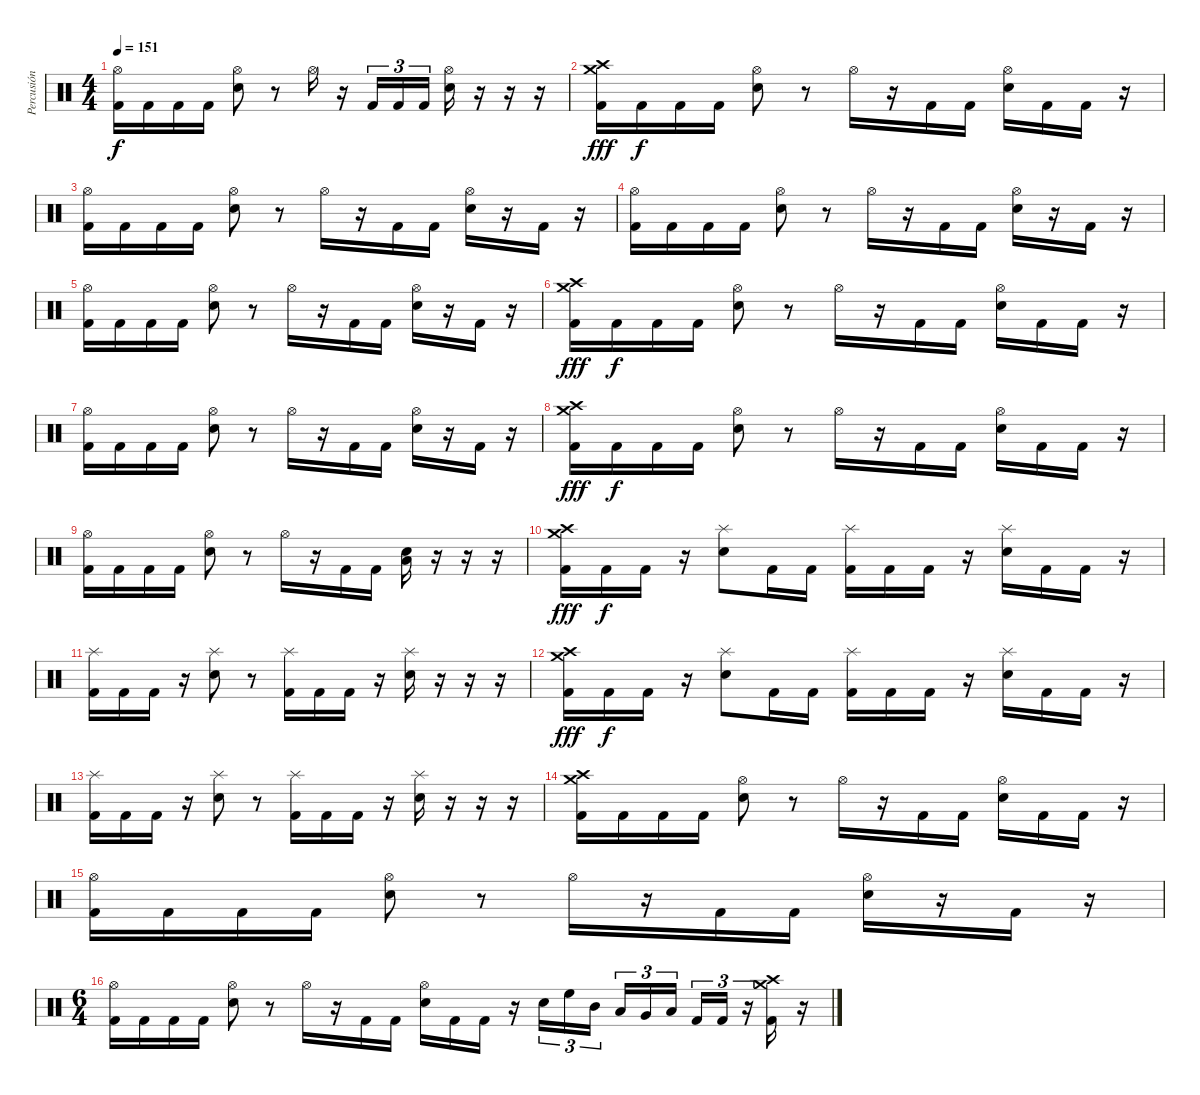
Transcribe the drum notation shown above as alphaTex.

\track ("Percusión" "Percusión") {instrument percussion}
\staff {score}
\articulation defaults
\ts (4 4)
\tempo 151
\clef neutral
\ks c
("Hi-Hat (open)" "Kick (hit) 2").16{dy f} "Kick (hit) 2".16 "Kick (hit) 2".16 "Kick (hit) 2".16 ("Hi-Hat (open)" "Electric Snare (hit)").8 r.8 "Hi-Hat (open)".16 r.16 "Kick (hit) 2".16{tu (3 2)} "Kick (hit) 2".16{tu (3 2)} "Kick (hit) 2".16{tu (3 2)} ("Hi-Hat (open)" "Electric Snare (hit)").16 r.16 r.16 r.16 |
("Crash high (hit)" "Crash medium (hit)" "Kick (hit) 2").16{dy fff} "Kick (hit) 2".16{dy f} "Kick (hit) 2".16 "Kick (hit) 2".16 ("Hi-Hat (open)" "Electric Snare (hit)").8 r.8 "Hi-Hat (open)".16 r.16 "Kick (hit) 2".16 "Kick (hit) 2".16 ("Hi-Hat (open)" "Electric Snare (hit)").16 "Kick (hit) 2".16 "Kick (hit) 2".16 r.16 |
("Hi-Hat (open)" "Kick (hit) 2").16 "Kick (hit) 2".16 "Kick (hit) 2".16 "Kick (hit) 2".16 ("Hi-Hat (open)" "Electric Snare (hit)").8 r.8 "Hi-Hat (open)".16 r.16 "Kick (hit) 2".16 "Kick (hit) 2".16 ("Hi-Hat (open)" "Electric Snare (hit)").16 r.16 "Kick (hit) 2".16 r.16 |
("Hi-Hat (open)" "Kick (hit) 2").16 "Kick (hit) 2".16 "Kick (hit) 2".16 "Kick (hit) 2".16 ("Hi-Hat (open)" "Electric Snare (hit)").8 r.8 "Hi-Hat (open)".16 r.16 "Kick (hit) 2".16 "Kick (hit) 2".16 ("Hi-Hat (open)" "Electric Snare (hit)").16 r.16 "Kick (hit) 2".16 r.16 |
("Hi-Hat (open)" "Kick (hit) 2").16 "Kick (hit) 2".16 "Kick (hit) 2".16 "Kick (hit) 2".16 ("Hi-Hat (open)" "Electric Snare (hit)").8 r.8 "Hi-Hat (open)".16 r.16 "Kick (hit) 2".16 "Kick (hit) 2".16 ("Hi-Hat (open)" "Electric Snare (hit)").16 r.16 "Kick (hit) 2".16 r.16 |
("Crash high (hit)" "Crash medium (hit)" "Kick (hit) 2").16{dy fff} "Kick (hit) 2".16{dy f} "Kick (hit) 2".16 "Kick (hit) 2".16 ("Hi-Hat (open)" "Electric Snare (hit)").8 r.8 "Hi-Hat (open)".16 r.16 "Kick (hit) 2".16 "Kick (hit) 2".16 ("Hi-Hat (open)" "Electric Snare (hit)").16 "Kick (hit) 2".16 "Kick (hit) 2".16 r.16 |
("Hi-Hat (open)" "Kick (hit) 2").16 "Kick (hit) 2".16 "Kick (hit) 2".16 "Kick (hit) 2".16 ("Hi-Hat (open)" "Electric Snare (hit)").8 r.8 "Hi-Hat (open)".16 r.16 "Kick (hit) 2".16 "Kick (hit) 2".16 ("Hi-Hat (open)" "Electric Snare (hit)").16 r.16 "Kick (hit) 2".16 r.16 |
("Crash high (hit)" "Crash medium (hit)" "Kick (hit) 2").16{dy fff} "Kick (hit) 2".16{dy f} "Kick (hit) 2".16 "Kick (hit) 2".16 ("Hi-Hat (open)" "Electric Snare (hit)").8 r.8 "Hi-Hat (open)".16 r.16 "Kick (hit) 2".16 "Kick (hit) 2".16 ("Hi-Hat (open)" "Electric Snare (hit)").16 "Kick (hit) 2".16 "Kick (hit) 2".16 r.16 |
("Hi-Hat (open)" "Kick (hit) 2").16 "Kick (hit) 2".16 "Kick (hit) 2".16 "Kick (hit) 2".16 ("Hi-Hat (open)" "Electric Snare (hit)").8 r.8 "Hi-Hat (open)".16 r.16 "Kick (hit) 2".16 "Kick (hit) 2".16 ("Electric Snare (hit)" "Low Tom (hit)").16 r.16 r.16 r.16 |
("Crash high (hit)" "Crash medium (hit)" "Kick (hit) 2").16{dy fff} "Kick (hit) 2".16{dy f} "Kick (hit) 2".16 r.16 ("Splash (hit)" "Electric Snare (hit)").8 "Kick (hit) 2".16 "Kick (hit) 2".16 ("Splash (hit)" "Kick (hit) 2").16 "Kick (hit) 2".16 "Kick (hit) 2".16 r.16 ("Splash (hit)" "Electric Snare (hit)").16 "Kick (hit) 2".16 "Kick (hit) 2".16 r.16 |
("Splash (hit)" "Kick (hit) 2").16 "Kick (hit) 2".16 "Kick (hit) 2".16 r.16 ("Splash (hit)" "Electric Snare (hit)").8 r.8 ("Splash (hit)" "Kick (hit) 2").16 "Kick (hit) 2".16 "Kick (hit) 2".16 r.16 ("Splash (hit)" "Electric Snare (hit)").16 r.16 r.16 r.16 |
("Crash high (hit)" "Crash medium (hit)" "Kick (hit) 2").16{dy fff} "Kick (hit) 2".16{dy f} "Kick (hit) 2".16 r.16 ("Splash (hit)" "Electric Snare (hit)").8 "Kick (hit) 2".16 "Kick (hit) 2".16 ("Splash (hit)" "Kick (hit) 2").16 "Kick (hit) 2".16 "Kick (hit) 2".16 r.16 ("Splash (hit)" "Electric Snare (hit)").16 "Kick (hit) 2".16 "Kick (hit) 2".16 r.16 |
("Splash (hit)" "Kick (hit) 2").16 "Kick (hit) 2".16 "Kick (hit) 2".16 r.16 ("Splash (hit)" "Electric Snare (hit)").8 r.8 ("Splash (hit)" "Kick (hit) 2").16 "Kick (hit) 2".16 "Kick (hit) 2".16 r.16 ("Splash (hit)" "Electric Snare (hit)").16 r.16 r.16 r.16 |
("Crash high (hit)" "Crash medium (hit)" "Kick (hit) 2").16 "Kick (hit) 2".16 "Kick (hit) 2".16 "Kick (hit) 2".16 ("Hi-Hat (open)" "Electric Snare (hit)").8 r.8 "Hi-Hat (open)".16 r.16 "Kick (hit) 2".16 "Kick (hit) 2".16 ("Hi-Hat (open)" "Electric Snare (hit)").16 "Kick (hit) 2".16 "Kick (hit) 2".16 r.16 |
("Hi-Hat (open)" "Kick (hit) 2").16 "Kick (hit) 2".16 "Kick (hit) 2".16 "Kick (hit) 2".16 ("Hi-Hat (open)" "Electric Snare (hit)").8 r.8 "Hi-Hat (open)".16 r.16 "Kick (hit) 2".16 "Kick (hit) 2".16 ("Hi-Hat (open)" "Electric Snare (hit)").16 r.16 "Kick (hit) 2".16 r.16 |
\ts (6 4)
("Hi-Hat (open)" "Kick (hit) 2").16 "Kick (hit) 2".16 "Kick (hit) 2".16 "Kick (hit) 2".16 ("Hi-Hat (open)" "Electric Snare (hit)").8 r.8 "Hi-Hat (open)".16 r.16 "Kick (hit) 2".16 "Kick (hit) 2".16 ("Hi-Hat (open)" "Electric Snare (hit)").16 "Kick (hit) 2".16 "Kick (hit) 2".16 r.16 "Electric Snare (hit)".16{tu (3 2)} "High Floor Tom (hit)".16{tu (3 2)} "Mid Tom (hit)".16{tu (3 2) beam splitsecondary} "Low Tom (hit)".16{tu (3 2)} "Very Low Tom (hit)".16{tu (3 2)} "Low Floor Tom (hit)".16{tu (3 2) beam splitsecondary} "Kick (hit) 2".16{tu (3 2)} "Kick (hit) 2".16{tu (3 2)} r.16{tu (3 2)} ("Crash medium (hit)" "Crash high (hit)" "Kick (hit) 2").16 r.16
